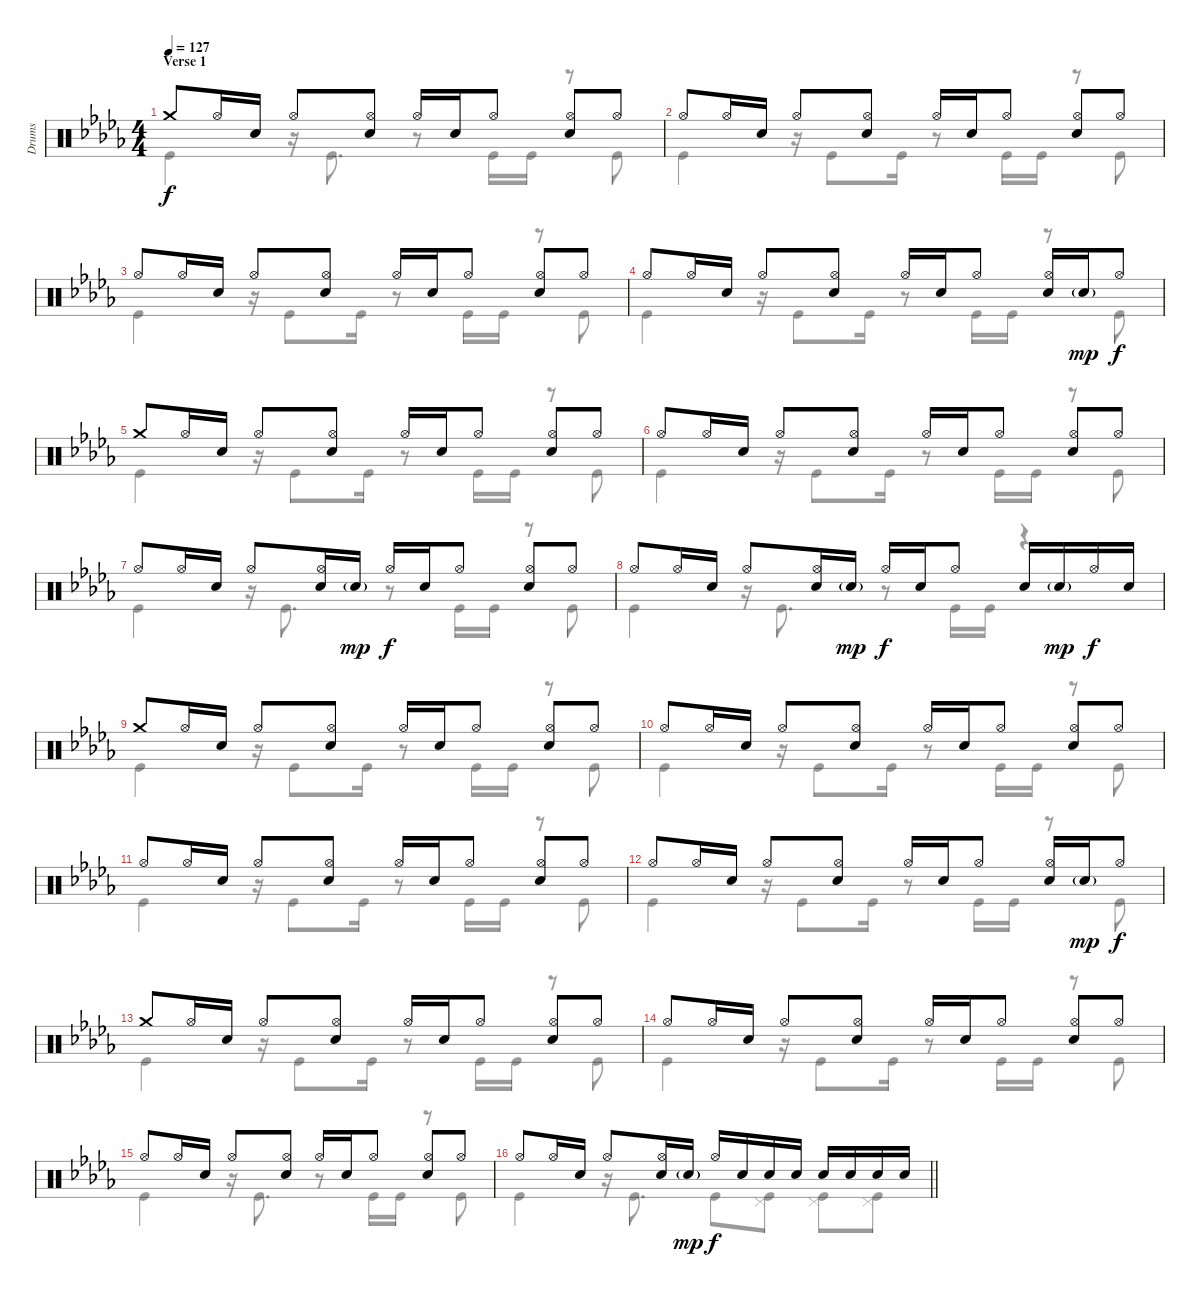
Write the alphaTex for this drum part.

\track ("Drums" "Drums") {instrument percussion}
\staff {score}
\articulation defaults
\voice
\ts (4 4)
\section ("" "Verse 1")
\tempo 127
\clef neutral
\ks bbminor "Crash medium (hit)".8{dy f} "Hi-Hat (open)".16 "Electric Snare (hit)".16 "Hi-Hat (open)".8
("Hi-Hat (open)" "Electric Snare (hit)").8 "Hi-Hat (open)".16 "Electric Snare (hit)".16 "Hi-Hat (open)".8 ("Hi-Hat (open)" "Electric Snare (hit)").8 "Hi-Hat (open)".8 |
"Hi-Hat (open)".8 "Hi-Hat (open)".16 "Electric Snare (hit)".16 "Hi-Hat (open)".8 ("Hi-Hat (open)" "Electric Snare (hit)").8 "Hi-Hat (open)".16 "Electric Snare (hit)".16 "Hi-Hat (open)".8 ("Hi-Hat (open)" "Electric Snare (hit)").8 "Hi-Hat (open)".8 |
"Hi-Hat (open)".8 "Hi-Hat (open)".16 "Electric Snare (hit)".16 "Hi-Hat (open)".8 ("Hi-Hat (open)" "Electric Snare (hit)").8 "Hi-Hat (open)".16 "Electric Snare (hit)".16 "Hi-Hat (open)".8 ("Hi-Hat (open)" "Electric Snare (hit)").8 "Hi-Hat (open)".8 |
"Hi-Hat (open)".8 "Hi-Hat (open)".16 "Electric Snare (hit)".16 "Hi-Hat (open)".8 ("Hi-Hat (open)" "Electric Snare (hit)").8 "Hi-Hat (open)".16 "Electric Snare (hit)".16 "Hi-Hat (open)".8 ("Hi-Hat (open)" "Electric Snare (hit)").16 "Electric Snare (hit)"{g}.16{dy mp} "Hi-Hat (open)".8{dy f} |
"Crash medium (hit)".8 "Hi-Hat (open)".16 "Electric Snare (hit)".16 "Hi-Hat (open)".8 ("Hi-Hat (open)" "Electric Snare (hit)").8 "Hi-Hat (open)".16 "Electric Snare (hit)".16 "Hi-Hat (open)".8 ("Hi-Hat (open)" "Electric Snare (hit)").8 "Hi-Hat (open)".8 |
"Hi-Hat (open)".8 "Hi-Hat (open)".16 "Electric Snare (hit)".16 "Hi-Hat (open)".8 ("Hi-Hat (open)" "Electric Snare (hit)").8 "Hi-Hat (open)".16 "Electric Snare (hit)".16 "Hi-Hat (open)".8 ("Hi-Hat (open)" "Electric Snare (hit)").8 "Hi-Hat (open)".8 |
"Hi-Hat (open)".8 "Hi-Hat (open)".16 "Electric Snare (hit)".16 "Hi-Hat (open)".8 ("Hi-Hat (open)" "Electric Snare (hit)").16 "Electric Snare (hit)"{g}.16{dy mp} "Hi-Hat (open)".16{dy f} "Electric Snare (hit)".16 "Hi-Hat (open)".8 ("Hi-Hat (open)" "Electric Snare (hit)").8 "Hi-Hat (open)".8 |
"Hi-Hat (open)".8 "Hi-Hat (open)".16 "Electric Snare (hit)".16 "Hi-Hat (open)".8 ("Hi-Hat (open)" "Electric Snare (hit)").16 "Electric Snare (hit)"{g}.16{dy mp} "Hi-Hat (open)".16{dy f} "Electric Snare (hit)".16 "Hi-Hat (open)".8 "Electric Snare (hit)".16 "Electric Snare (hit)"{g}.16{dy mp} "Hi-Hat (open)".16{dy f} "Electric Snare (hit)".16 |
"Crash medium (hit)".8 "Hi-Hat (open)".16 "Electric Snare (hit)".16 "Hi-Hat (open)".8 ("Hi-Hat (open)" "Electric Snare (hit)").8 "Hi-Hat (open)".16 "Electric Snare (hit)".16 "Hi-Hat (open)".8 ("Hi-Hat (open)" "Electric Snare (hit)").8 "Hi-Hat (open)".8 |
"Hi-Hat (open)".8 "Hi-Hat (open)".16 "Electric Snare (hit)".16 "Hi-Hat (open)".8 ("Hi-Hat (open)" "Electric Snare (hit)").8 "Hi-Hat (open)".16 "Electric Snare (hit)".16 "Hi-Hat (open)".8 ("Hi-Hat (open)" "Electric Snare (hit)").8 "Hi-Hat (open)".8 |
"Hi-Hat (open)".8 "Hi-Hat (open)".16 "Electric Snare (hit)".16 "Hi-Hat (open)".8 ("Hi-Hat (open)" "Electric Snare (hit)").8 "Hi-Hat (open)".16 "Electric Snare (hit)".16 "Hi-Hat (open)".8 ("Hi-Hat (open)" "Electric Snare (hit)").8 "Hi-Hat (open)".8 |
"Hi-Hat (open)".8 "Hi-Hat (open)".16 "Electric Snare (hit)".16 "Hi-Hat (open)".8 ("Hi-Hat (open)" "Electric Snare (hit)").8 "Hi-Hat (open)".16 "Electric Snare (hit)".16 "Hi-Hat (open)".8 ("Hi-Hat (open)" "Electric Snare (hit)").16 "Electric Snare (hit)"{g}.16{dy mp} "Hi-Hat (open)".8{dy f} |
"Crash medium (hit)".8 "Hi-Hat (open)".16 "Electric Snare (hit)".16 "Hi-Hat (open)".8 ("Hi-Hat (open)" "Electric Snare (hit)").8 "Hi-Hat (open)".16 "Electric Snare (hit)".16 "Hi-Hat (open)".8 ("Hi-Hat (open)" "Electric Snare (hit)").8 "Hi-Hat (open)".8 |
"Hi-Hat (open)".8 "Hi-Hat (open)".16 "Electric Snare (hit)".16 "Hi-Hat (open)".8 ("Hi-Hat (open)" "Electric Snare (hit)").8 "Hi-Hat (open)".16 "Electric Snare (hit)".16 "Hi-Hat (open)".8 ("Hi-Hat (open)" "Electric Snare (hit)").8 "Hi-Hat (open)".8 |
"Hi-Hat (open)".8 "Hi-Hat (open)".16 "Electric Snare (hit)".16 "Hi-Hat (open)".8 ("Hi-Hat (open)" "Electric Snare (hit)").8 "Hi-Hat (open)".16 "Electric Snare (hit)".16 "Hi-Hat (open)".8 ("Hi-Hat (open)" "Electric Snare (hit)").8 "Hi-Hat (open)".8 |
\barLineRight lightlight "Hi-Hat (open)".8 "Hi-Hat (open)".16 "Electric Snare (hit)".16 "Hi-Hat (open)".8
("Hi-Hat (open)" "Electric Snare (hit)").16 "Electric Snare (hit)"{g}.16{dy mp} "Hi-Hat (open)".16{dy f} "Electric Snare (hit)".16 "Electric Snare (hit)".16 "Electric Snare (hit)".16 "Electric Snare (hit)".16 "Electric Snare (hit)".16 "Electric Snare (hit)".16 "Electric Snare (hit)".16
\voice
\clef neutral
\ottava regular
\simile none
\ks bbminor "Kick (hit)".4{dy f}
r.16 "Kick (hit)".8{d} r.8 "Kick (hit)".16 "Kick (hit)".16 r.8 "Kick (hit)".8 |
"Kick (hit)".4 r.16 "Kick (hit)".8 "Kick (hit)".16 r.8 "Kick (hit)".16 "Kick (hit)".16 r.8 "Kick (hit)".8 |
"Kick (hit)".4 r.16 "Kick (hit)".8 "Kick (hit)".16 r.8 "Kick (hit)".16 "Kick (hit)".16 r.8 "Kick (hit)".8 |
"Kick (hit)".4 r.16 "Kick (hit)".8 "Kick (hit)".16 r.8 "Kick (hit)".16 "Kick (hit)".16 r.8 "Kick (hit)".8 |
"Kick (hit)".4 r.16 "Kick (hit)".8 "Kick (hit)".16 r.8 "Kick (hit)".16 "Kick (hit)".16 r.8 "Kick (hit)".8 |
"Kick (hit)".4 r.16 "Kick (hit)".8 "Kick (hit)".16 r.8 "Kick (hit)".16 "Kick (hit)".16 r.8 "Kick (hit)".8 |
"Kick (hit)".4 r.16 "Kick (hit)".8{d} r.8 "Kick (hit)".16 "Kick (hit)".16 r.8 "Kick (hit)".8 |
"Kick (hit)".4 r.16 "Kick (hit)".8{d} r.8 "Kick (hit)".16 "Kick (hit)".16 r.4 |
"Kick (hit)".4 r.16 "Kick (hit)".8 "Kick (hit)".16 r.8 "Kick (hit)".16 "Kick (hit)".16 r.8 "Kick (hit)".8 |
"Kick (hit)".4 r.16 "Kick (hit)".8 "Kick (hit)".16 r.8 "Kick (hit)".16 "Kick (hit)".16 r.8 "Kick (hit)".8 |
"Kick (hit)".4 r.16 "Kick (hit)".8 "Kick (hit)".16 r.8 "Kick (hit)".16 "Kick (hit)".16 r.8 "Kick (hit)".8 |
"Kick (hit)".4 r.16 "Kick (hit)".8 "Kick (hit)".16 r.8 "Kick (hit)".16 "Kick (hit)".16 r.8 "Kick (hit)".8 |
"Kick (hit)".4 r.16 "Kick (hit)".8 "Kick (hit)".16 r.8 "Kick (hit)".16 "Kick (hit)".16 r.8 "Kick (hit)".8 |
"Kick (hit)".4 r.16 "Kick (hit)".8 "Kick (hit)".16 r.8 "Kick (hit)".16 "Kick (hit)".16 r.8 "Kick (hit)".8 |
"Kick (hit)".4 r.16 "Kick (hit)".8{d} r.8 "Kick (hit)".16 "Kick (hit)".16 r.8 "Kick (hit)".8 |
\barLineRight lightlight "Kick (hit)".4
r.16 "Kick (hit)".8{d} "Kick (hit)".8 ("Pedal Hi-Hat (hit)" "Kick (hit)").8 ("Pedal Hi-Hat (hit)" "Kick (hit)").8 ("Pedal Hi-Hat (hit)" "Kick (hit)").8
